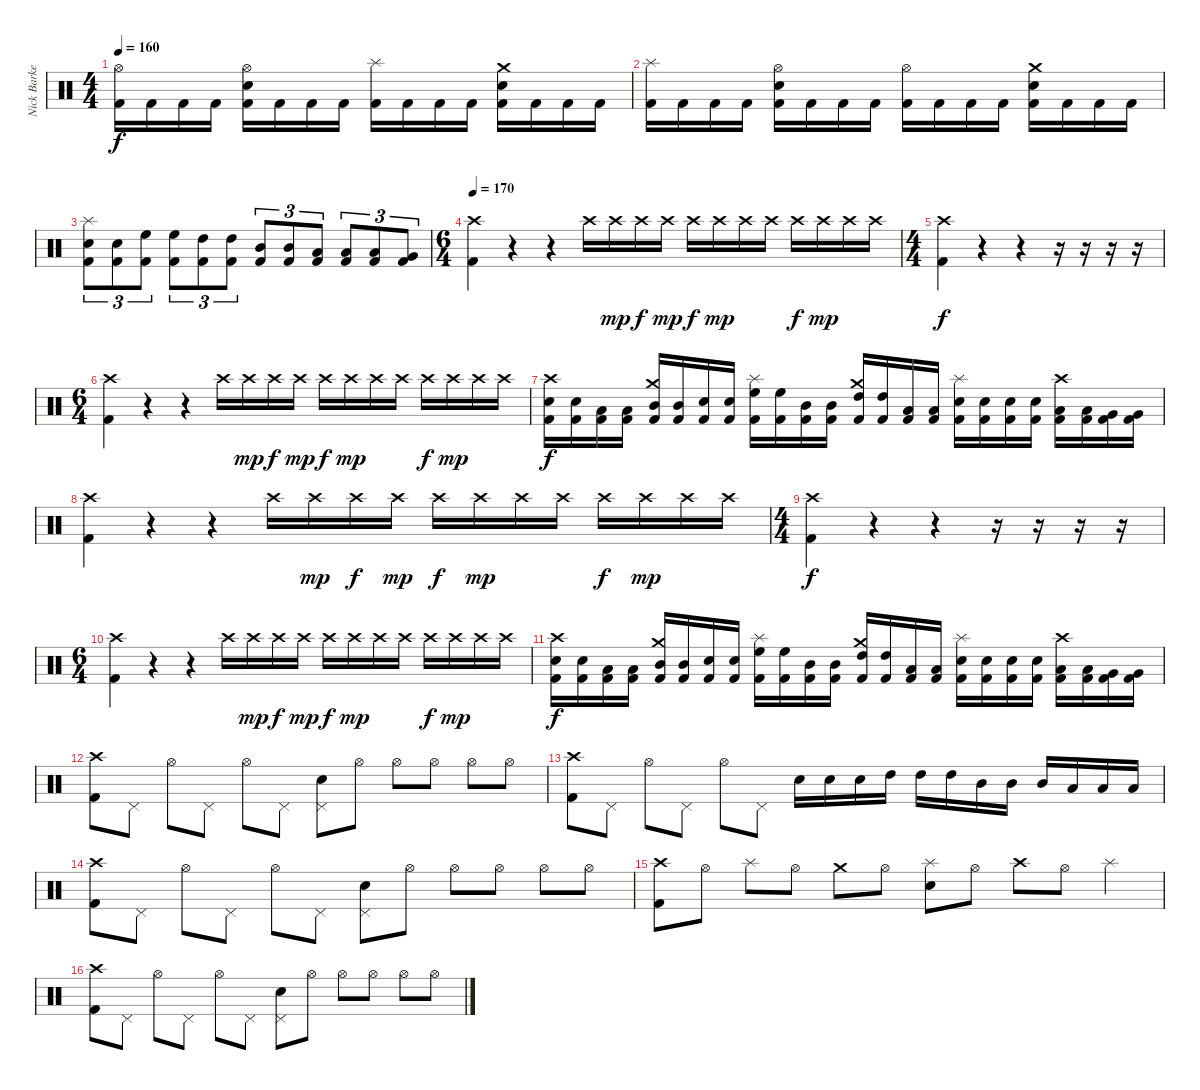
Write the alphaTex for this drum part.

\track ("Nick Barker" "Nick Barke") {instrument percussion}
\staff {score}
\articulation defaults
\ts (4 4)
\tempo 160
\clef neutral
\ks c
("Hi-Hat (open)" "Kick (hit) 2").16{dy f} "Kick (hit) 2".16 "Kick (hit) 2".16 "Kick (hit) 2".16 ("Hi-Hat (open)" "Electric Snare (hit)" "Kick (hit) 2").16 "Kick (hit) 2".16 "Kick (hit) 2".16 "Kick (hit) 2".16 ("Splash (hit)" "Kick (hit) 2").16 "Kick (hit) 2".16 "Kick (hit) 2".16 "Kick (hit) 2".16 ("Crash medium (hit)" "Electric Snare (hit)" "Kick (hit) 2").16 "Kick (hit) 2".16 "Kick (hit) 2".16 "Kick (hit) 2".16 |
("Splash (hit)" "Kick (hit) 2").16 "Kick (hit) 2".16 "Kick (hit) 2".16 "Kick (hit) 2".16 ("Hi-Hat (open)" "Electric Snare (hit)" "Kick (hit) 2").16 "Kick (hit) 2".16 "Kick (hit) 2".16 "Kick (hit) 2".16 ("Hi-Hat (open)" "Kick (hit) 2").16 "Kick (hit) 2".16 "Kick (hit) 2".16 "Kick (hit) 2".16 ("Crash medium (hit)" "Electric Snare (hit)" "Kick (hit) 2").16 "Kick (hit) 2".16 "Kick (hit) 2".16 "Kick (hit) 2".16 |
("Splash (hit)" "Electric Snare (hit)" "Kick (hit) 2").8{tu (3 2)} ("Electric Snare (hit)" "Kick (hit) 2").8{tu (3 2)} ("High Floor Tom (hit)" "Kick (hit) 2").8{tu (3 2)} ("High Floor Tom (hit)" "Kick (hit) 2").8{tu (3 2)} ("High Tom (hit)" "Kick (hit) 2").8{tu (3 2)} ("High Tom (hit)" "Kick (hit) 2").8{tu (3 2)} ("Mid Tom (hit)" "Kick (hit) 2").8{tu (3 2)} ("Mid Tom (hit)" "Kick (hit) 2").8{tu (3 2)} ("Low Tom (hit)" "Kick (hit) 2").8{tu (3 2)} ("Low Tom (hit)" "Kick (hit) 2").8{tu (3 2)} ("Low Tom (hit)" "Kick (hit) 2").8{tu (3 2)} ("Very Low Tom (hit)" "Kick (hit) 2").8{tu (3 2)} |
\ts (6 4)
\section ("" "")
\tempo 170
("Crash high (hit)" "Kick (hit) 2").4 r.4 r.4 "Crash high (hit)".16 "Crash high (hit)".16{dy mp} "Crash high (hit)".16{dy f} "Crash high (hit)".16{dy mp} "Crash high (hit)".16{dy f} "Crash high (hit)".16{dy mp} "Crash high (hit)".16 "Crash high (hit)".16 "Crash high (hit)".16{dy f} "Crash high (hit)".16{dy mp} "Crash high (hit)".16 "Crash high (hit)".16 |
\ts (4 4)
("Crash high (hit)" "Kick (hit) 2").4{dy f} r.4{volume 0} r.4 r.16 r.16 r.16 r.16 |
\ts (6 4)
("Crash high (hit)" "Kick (hit) 2").4{volume 16} r.4 r.4 "Crash high (hit)".16 "Crash high (hit)".16{dy mp} "Crash high (hit)".16{dy f} "Crash high (hit)".16{dy mp} "Crash high (hit)".16{dy f} "Crash high (hit)".16{dy mp} "Crash high (hit)".16 "Crash high (hit)".16 "Crash high (hit)".16{dy f} "Crash high (hit)".16{dy mp} "Crash high (hit)".16 "Crash high (hit)".16 |
("Crash high (hit)" "Electric Snare (hit)" "Kick (hit) 2").16{dy f} ("Electric Snare (hit)" "Kick (hit) 2").16 ("Low Tom (hit)" "Kick (hit) 2").16 ("Low Tom (hit)" "Kick (hit) 2").16 ("Crash medium (hit)" "Mid Tom (hit)" "Kick (hit) 2").16 ("Mid Tom (hit)" "Kick (hit) 2").16 ("Electric Snare (hit)" "Kick (hit) 2").16 ("Electric Snare (hit)" "Kick (hit) 2").16 ("Splash (hit)" "High Floor Tom (hit)" "Kick (hit) 2").16 ("High Floor Tom (hit)" "Kick (hit) 2").16 ("Mid Tom (hit)" "Kick (hit) 2").16 ("Mid Tom (hit)" "Kick (hit) 2").16 ("Crash medium (hit)" "High Tom (hit)" "Kick (hit) 2").16 ("High Tom (hit)" "Kick (hit) 2").16 ("Low Tom (hit)" "Kick (hit) 2").16 ("Low Tom (hit)" "Kick (hit) 2").16 ("Splash (hit)" "Electric Snare (hit)" "Kick (hit) 2").16 ("Electric Snare (hit)" "Kick (hit) 2").16 ("Electric Snare (hit)" "Kick (hit) 2").16 ("Electric Snare (hit)" "Kick (hit) 2").16 ("Crash high (hit)" "Low Tom (hit)" "Kick (hit) 2").16 ("Low Tom (hit)" "Kick (hit) 2").16 ("Very Low Tom (hit)" "Kick (hit) 2").16 ("Very Low Tom (hit)" "Kick (hit) 2").16 |
("Crash high (hit)" "Kick (hit) 2").4 r.4 r.4 "Crash high (hit)".16 "Crash high (hit)".16{dy mp} "Crash high (hit)".16{dy f} "Crash high (hit)".16{dy mp} "Crash high (hit)".16{dy f} "Crash high (hit)".16{dy mp} "Crash high (hit)".16 "Crash high (hit)".16 "Crash high (hit)".16{dy f} "Crash high (hit)".16{dy mp} "Crash high (hit)".16 "Crash high (hit)".16 |
\ts (4 4)
("Crash high (hit)" "Kick (hit) 2").4{dy f} r.4{volume 0} r.4 r.16 r.16 r.16 r.16 |
\ts (6 4)
("Crash high (hit)" "Kick (hit) 2").4{volume 16} r.4 r.4 "Crash high (hit)".16 "Crash high (hit)".16{dy mp} "Crash high (hit)".16{dy f} "Crash high (hit)".16{dy mp} "Crash high (hit)".16{dy f} "Crash high (hit)".16{dy mp} "Crash high (hit)".16 "Crash high (hit)".16 "Crash high (hit)".16{dy f} "Crash high (hit)".16{dy mp} "Crash high (hit)".16 "Crash high (hit)".16 |
("Crash high (hit)" "Electric Snare (hit)" "Kick (hit) 2").16{dy f} ("Electric Snare (hit)" "Kick (hit) 2").16 ("Low Tom (hit)" "Kick (hit) 2").16 ("Low Tom (hit)" "Kick (hit) 2").16 ("Crash medium (hit)" "Mid Tom (hit)" "Kick (hit) 2").16 ("Mid Tom (hit)" "Kick (hit) 2").16 ("Electric Snare (hit)" "Kick (hit) 2").16 ("Electric Snare (hit)" "Kick (hit) 2").16 ("Splash (hit)" "High Floor Tom (hit)" "Kick (hit) 2").16 ("High Floor Tom (hit)" "Kick (hit) 2").16 ("Mid Tom (hit)" "Kick (hit) 2").16 ("Mid Tom (hit)" "Kick (hit) 2").16 ("Crash medium (hit)" "High Tom (hit)" "Kick (hit) 2").16 ("High Tom (hit)" "Kick (hit) 2").16 ("Low Tom (hit)" "Kick (hit) 2").16 ("Low Tom (hit)" "Kick (hit) 2").16 ("Splash (hit)" "Electric Snare (hit)" "Kick (hit) 2").16 ("Electric Snare (hit)" "Kick (hit) 2").16 ("Electric Snare (hit)" "Kick (hit) 2").16 ("Electric Snare (hit)" "Kick (hit) 2").16 ("Crash high (hit)" "Low Tom (hit)" "Kick (hit) 2").16 ("Low Tom (hit)" "Kick (hit) 2").16 ("Very Low Tom (hit)" "Kick (hit) 2").16 ("Very Low Tom (hit)" "Kick (hit) 2").16 |
("Crash high (hit)" "Kick (hit) 2").8 "Pedal Hi-Hat (hit)".8 "Hi-Hat (open)".8 "Pedal Hi-Hat (hit)".8 "Hi-Hat (open)".8 "Pedal Hi-Hat (hit)".8 ("Pedal Hi-Hat (hit)" "Electric Snare (hit)").8 "Hi-Hat (open)".8 "Hi-Hat (open)".8 "Hi-Hat (open)".8 "Hi-Hat (open)".8 "Hi-Hat (open)".8 |
("Crash high (hit)" "Kick (hit) 2").8 "Pedal Hi-Hat (hit)".8 "Hi-Hat (open)".8 "Pedal Hi-Hat (hit)".8 "Hi-Hat (open)".8 "Pedal Hi-Hat (hit)".8 "Electric Snare (hit)".16 "Electric Snare (hit)".16 "Electric Snare (hit)".16 "High Tom (hit)".16 "High Tom (hit)".16 "High Tom (hit)".16 "Mid Tom (hit)".16 "Mid Tom (hit)".16 "Mid Tom (hit)".16 "Low Tom (hit)".16 "Low Tom (hit)".16 "Low Tom (hit)".16 |
("Crash high (hit)" "Kick (hit) 2").8 "Pedal Hi-Hat (hit)".8 "Hi-Hat (open)".8 "Pedal Hi-Hat (hit)".8 "Hi-Hat (open)".8 "Pedal Hi-Hat (hit)".8 ("Pedal Hi-Hat (hit)" "Electric Snare (hit)").8 "Hi-Hat (open)".8 "Hi-Hat (open)".8 "Hi-Hat (open)".8 "Hi-Hat (open)".8 "Hi-Hat (open)".8 |
("Crash high (hit)" "Kick (hit) 2").8 "Hi-Hat (open)".8 "Splash (hit)".8 "Hi-Hat (open)".8 "Crash medium (hit)".8 "Hi-Hat (open)".8 ("Splash (hit)" "Electric Snare (hit)").8 "Hi-Hat (open)".8 "Crash high (hit)".8 "Hi-Hat (open)".8 "Splash (hit)".4 |
("Crash high (hit)" "Kick (hit) 2").8 "Pedal Hi-Hat (hit)".8 "Hi-Hat (open)".8 "Pedal Hi-Hat (hit)".8 "Hi-Hat (open)".8 "Pedal Hi-Hat (hit)".8 ("Pedal Hi-Hat (hit)" "Electric Snare (hit)").8 "Hi-Hat (open)".8 "Hi-Hat (open)".8 "Hi-Hat (open)".8 "Hi-Hat (open)".8 "Hi-Hat (open)".8
